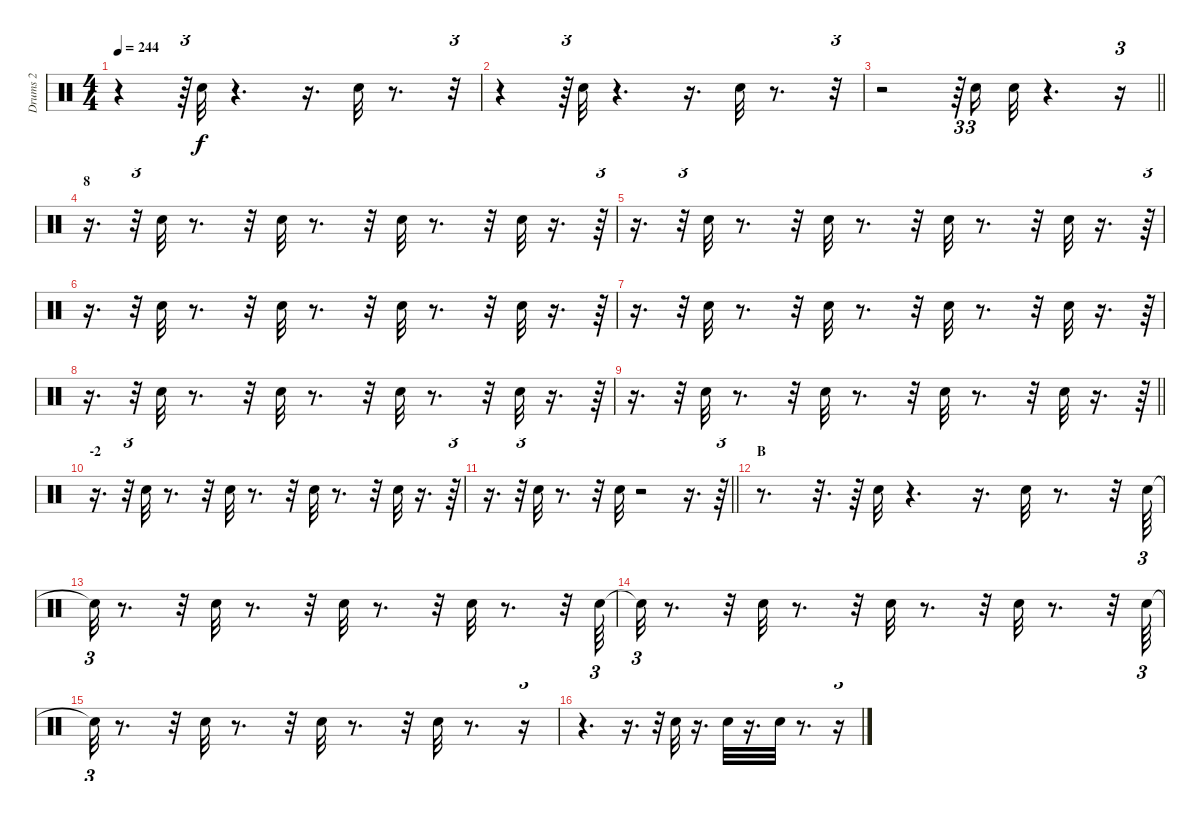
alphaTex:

\track ("Drums 2" "Drums 2") {instrument percussion}
\staff {score}
\articulation defaults
\ts (4 4)
\tempo 244
\clef neutral
\ks c
r.4{dy f} r.64{tu (3 2)} "Electric Snare (hit)".32 r.4{d} r.16{d} "Electric Snare (hit)".32 r.8{d} r.32{tu (3 2)} |
r.4 r.64{tu (3 2)} "Electric Snare (hit)".32 r.4{d} r.16{d} "Electric Snare (hit)".32 r.8{d} r.32{tu (3 2)} |
\barLineRight lightlight
r.2 r.64{tu (3 2)} "Electric Snare (hit)".16{tu (3 2)} "Electric Snare (hit)".32 r.4{d} r.16{tu (3 2)} |
\section ("" "8")
r.16{d} r.32{tu (3 2)} "Electric Snare (hit)".32 r.8{d} r.32 "Electric Snare (hit)".32 r.8{d} r.32 "Electric Snare (hit)".32 r.8{d} r.32 "Electric Snare (hit)".32 r.16{d} r.64{tu (3 2)} |
r.16{d} r.32{tu (3 2)} "Electric Snare (hit)".32 r.8{d} r.32 "Electric Snare (hit)".32 r.8{d} r.32 "Electric Snare (hit)".32 r.8{d} r.32 "Electric Snare (hit)".32 r.16{d} r.64{tu (3 2)} |
r.16{d} r.32{tu (3 2)} "Electric Snare (hit)".32 r.8{d} r.32 "Electric Snare (hit)".32 r.8{d} r.32 "Electric Snare (hit)".32 r.8{d} r.32 "Electric Snare (hit)".32 r.16{d} r.64{tu (3 2)} |
r.16{d} r.32{tu (3 2)} "Electric Snare (hit)".32 r.8{d} r.32 "Electric Snare (hit)".32 r.8{d} r.32 "Electric Snare (hit)".32 r.8{d} r.32 "Electric Snare (hit)".32 r.16{d} r.64{tu (3 2)} |
r.16{d} r.32{tu (3 2)} "Electric Snare (hit)".32 r.8{d} r.32 "Electric Snare (hit)".32 r.8{d} r.32 "Electric Snare (hit)".32 r.8{d} r.32 "Electric Snare (hit)".32 r.16{d} r.64{tu (3 2)} |
\barLineRight lightlight
r.16{d} r.32{tu (3 2)} "Electric Snare (hit)".32 r.8{d} r.32 "Electric Snare (hit)".32 r.8{d} r.32 "Electric Snare (hit)".32 r.8{d} r.32 "Electric Snare (hit)".32 r.16{d} r.64{tu (3 2)} |
\section ("" "-2")
r.16{d} r.32{tu (3 2)} "Electric Snare (hit)".32 r.8{d} r.32 "Electric Snare (hit)".32 r.8{d} r.32 "Electric Snare (hit)".32 r.8{d} r.32 "Electric Snare (hit)".32 r.16{d} r.64{tu (3 2)} |
\barLineRight lightlight
r.16{d} r.32{tu (3 2)} "Electric Snare (hit)".32 r.8{d} r.32 "Electric Snare (hit)".32 r.2 r.16{d} r.64{tu (3 2)} |
\section ("" "B")
r.8{d} r.32{d} r.64 "Electric Snare (hit)".32 r.4{d} r.16{d} "Electric Snare (hit)".32 r.8{d} r.32 "Electric Snare (hit)".64{tu (3 2)} |
"Snare (hit)"{t}.32{tu (3 2)} r.8{d} r.32 "Electric Snare (hit)".32 r.8{d} r.32 "Electric Snare (hit)".32 r.8{d} r.32 "Electric Snare (hit)".32 r.8{d} r.32 "Electric Snare (hit)".64{tu (3 2)} |
"Snare (hit)"{t}.32{tu (3 2)} r.8{d} r.32 "Electric Snare (hit)".32 r.8{d} r.32 "Electric Snare (hit)".32 r.8{d} r.32 "Electric Snare (hit)".32 r.8{d} r.32 "Electric Snare (hit)".64{tu (3 2)} |
"Snare (hit)"{t}.32{tu (3 2)} r.8{d} r.32 "Electric Snare (hit)".32 r.8{d} r.32 "Electric Snare (hit)".32 r.8{d} r.32 "Electric Snare (hit)".32 r.8{d} r.16{tu (3 2)} |
r.4{d} r.16{d} r.32{tu (3 2)} "Electric Snare (hit)".32 r.16{d} "Electric Snare (hit)".32 r.16{d} "Electric Snare (hit)".32 r.8{d} r.16{tu (3 2)}
